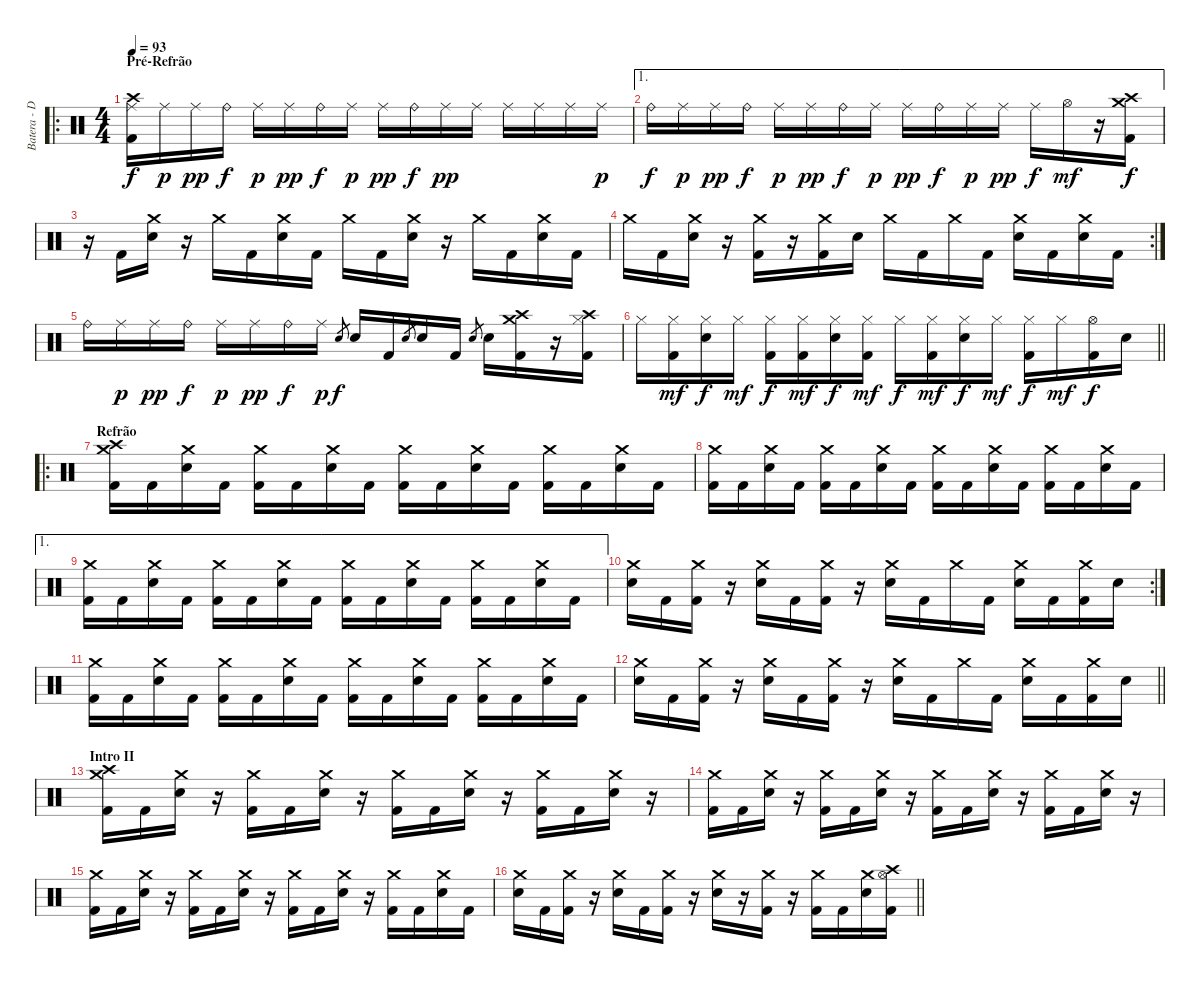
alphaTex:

\track ("Batera - Daniel" "Batera - D") {instrument percussion}
\staff {score}
\articulation defaults
\ro
\ts (4 4)
\section ("" "Pré-Refrão")
\tempo 93
\clef neutral
\ks c
("Crash high (hit)" "Ride (middle)" "Kick (hit) 2").16{dy f} "Ride (middle)".16{dy p} "Ride (middle)".16{dy pp} "Ride (bell)".16{dy f} "Ride (middle)".16{dy p} "Ride (middle)".16{dy pp} "Ride (bell)".16{dy f} "Ride (middle)".16{dy p} "Ride (middle)".16{dy pp} "Ride (bell)".16{dy f} "Ride (middle)".16{dy pp} "Ride (middle)".16 "Ride (middle)".16 "Ride (middle)".16 "Ride (middle)".16 "Ride (middle)".16{dy p} |
\ae 1 "Ride (bell)".16{dy f} "Ride (middle)".16{dy p} "Ride (middle)".16{dy pp} "Ride (bell)".16{dy f} "Ride (middle)".16{dy p} "Ride (middle)".16{dy pp} "Ride (bell)".16{dy f} "Ride (middle)".16{dy p} "Ride (middle)".16{dy pp} "Ride (bell)".16{dy f} "Ride (middle)".16{dy p} "Ride (middle)".16{dy pp} "Ride (middle)".16{dy f} "Hi-Hat (open)".16{dy mf}
r.16 ("Crash high (hit)" "Crash medium (hit)" "Kick (hit) 2").16{dy f} |
r.16 "Kick (hit) 2".16 ("Crash medium (hit)" "Electric Snare (hit)").16 r.16 "Crash medium (hit)".16 "Kick (hit) 2".16 ("Crash medium (hit)" "Electric Snare (hit)").16 "Kick (hit) 2".16 "Crash medium (hit)".16 "Kick (hit) 2".16 ("Crash medium (hit)" "Electric Snare (hit)").16 r.16 "Crash medium (hit)".16 "Kick (hit) 2".16 ("Crash medium (hit)" "Electric Snare (hit)").16 "Kick (hit) 2".16 |
\rc 2 "Crash medium (hit)".16 "Kick (hit) 2".16
("Crash medium (hit)" "Electric Snare (hit)").16 r.16 ("Crash medium (hit)" "Kick (hit) 2").16 r.16 ("Crash medium (hit)" "Kick (hit) 2").16 "Electric Snare (hit)".16 "Crash medium (hit)".16 "Kick (hit) 2".16 "Crash medium (hit)".16 "Kick (hit) 2".16 ("Crash medium (hit)" "Electric Snare (hit)").16 "Kick (hit) 2".16 ("Crash medium (hit)" "Electric Snare (hit)").16 "Kick (hit) 2".16 |
"Ride (bell)".16 "Ride (middle)".16{dy p} "Ride (middle)".16{dy pp} "Ride (bell)".16{dy f} "Ride (middle)".16{dy p} "Ride (middle)".16{dy pp} "Ride (bell)".16{dy f} "Ride (middle)".16{dy p} "Electric Snare (hit)".8{gr dy f} "Electric Snare (hit)".16 "Kick (hit) 2".16 "Electric Snare (hit)".8{gr} "Electric Snare (hit)".16 "Kick (hit) 2".16 "Electric Snare (hit)".8{gr} "Electric Snare (hit)".16 ("Crash high (hit)" "Crash medium (hit)" "Kick (hit) 2").16 r.16 ("Crash high (hit)" "Hi-Hat (closed)" "Kick (hit) 2").16 |
\barLineRight lightlight "Hi-Hat (closed)".16
("Hi-Hat (closed)" "Kick (hit) 2").16{dy mf} ("Hi-Hat (closed)" "Electric Snare (hit)").16{dy f} "Hi-Hat (closed)".16{dy mf} ("Hi-Hat (closed)" "Kick (hit) 2").16{dy f} ("Hi-Hat (closed)" "Kick (hit) 2").16{dy mf} ("Hi-Hat (closed)" "Electric Snare (hit)").16{dy f} ("Hi-Hat (closed)" "Kick (hit) 2").16{dy mf} "Hi-Hat (closed)".16{dy f} ("Hi-Hat (closed)" "Kick (hit) 2").16{dy mf} ("Hi-Hat (closed)" "Electric Snare (hit)").16{dy f} "Hi-Hat (closed)".16{dy mf} ("Hi-Hat (closed)" "Kick (hit) 2").16{dy f} "Hi-Hat (closed)".16{dy mf} ("Hi-Hat (open)" "Kick (hit) 2").16{dy f} "Electric Snare (hit)".16 |
\ro
\section ("" "Refrão")
("Crash high (hit)" "Crash medium (hit)" "Kick (hit) 2").16 "Kick (hit) 2".16 ("Crash medium (hit)" "Electric Snare (hit)").16 "Kick (hit) 2".16 ("Crash medium (hit)" "Kick (hit) 2").16 "Kick (hit) 2".16 ("Crash medium (hit)" "Electric Snare (hit)").16 "Kick (hit) 2".16 ("Crash medium (hit)" "Kick (hit) 2").16 "Kick (hit) 2".16 ("Crash medium (hit)" "Electric Snare (hit)").16 "Kick (hit) 2".16 ("Crash medium (hit)" "Kick (hit) 2").16 "Kick (hit) 2".16 ("Crash medium (hit)" "Electric Snare (hit)").16 "Kick (hit) 2".16 |
("Crash medium (hit)" "Kick (hit) 2").16 "Kick (hit) 2".16 ("Crash medium (hit)" "Electric Snare (hit)").16 "Kick (hit) 2".16 ("Crash medium (hit)" "Kick (hit) 2").16 "Kick (hit) 2".16 ("Crash medium (hit)" "Electric Snare (hit)").16 "Kick (hit) 2".16 ("Crash medium (hit)" "Kick (hit) 2").16 "Kick (hit) 2".16 ("Crash medium (hit)" "Electric Snare (hit)").16 "Kick (hit) 2".16 ("Crash medium (hit)" "Kick (hit) 2").16 "Kick (hit) 2".16 ("Crash medium (hit)" "Electric Snare (hit)").16 "Kick (hit) 2".16 |
\ae 1
("Crash medium (hit)" "Kick (hit) 2").16 "Kick (hit) 2".16 ("Crash medium (hit)" "Electric Snare (hit)").16 "Kick (hit) 2".16 ("Crash medium (hit)" "Kick (hit) 2").16 "Kick (hit) 2".16 ("Crash medium (hit)" "Electric Snare (hit)").16 "Kick (hit) 2".16 ("Crash medium (hit)" "Kick (hit) 2").16 "Kick (hit) 2".16 ("Crash medium (hit)" "Electric Snare (hit)").16 "Kick (hit) 2".16 ("Crash medium (hit)" "Kick (hit) 2").16 "Kick (hit) 2".16 ("Crash medium (hit)" "Electric Snare (hit)").16 "Kick (hit) 2".16 |
\rc 2
("Crash medium (hit)" "Electric Snare (hit)").16 "Kick (hit) 2".16 ("Crash medium (hit)" "Kick (hit) 2").16 r.16 ("Crash medium (hit)" "Electric Snare (hit)").16 "Kick (hit) 2".16 ("Crash medium (hit)" "Kick (hit) 2").16 r.16 ("Crash medium (hit)" "Electric Snare (hit)").16 "Kick (hit) 2".16 "Crash medium (hit)".16 "Kick (hit) 2".16 ("Crash medium (hit)" "Electric Snare (hit)").16 "Kick (hit) 2".16 ("Crash medium (hit)" "Kick (hit) 2").16 "Electric Snare (hit)".16 |
("Crash medium (hit)" "Kick (hit) 2").16 "Kick (hit) 2".16 ("Crash medium (hit)" "Electric Snare (hit)").16 "Kick (hit) 2".16 ("Crash medium (hit)" "Kick (hit) 2").16 "Kick (hit) 2".16 ("Crash medium (hit)" "Electric Snare (hit)").16 "Kick (hit) 2".16 ("Crash medium (hit)" "Kick (hit) 2").16 "Kick (hit) 2".16 ("Crash medium (hit)" "Electric Snare (hit)").16 "Kick (hit) 2".16 ("Crash medium (hit)" "Kick (hit) 2").16 "Kick (hit) 2".16 ("Crash medium (hit)" "Electric Snare (hit)").16 "Kick (hit) 2".16 |
\barLineRight lightlight
("Crash medium (hit)" "Electric Snare (hit)").16 "Kick (hit) 2".16 ("Crash medium (hit)" "Kick (hit) 2").16 r.16 ("Crash medium (hit)" "Electric Snare (hit)").16 "Kick (hit) 2".16 ("Crash medium (hit)" "Kick (hit) 2").16 r.16 ("Crash medium (hit)" "Electric Snare (hit)").16 "Kick (hit) 2".16 "Crash medium (hit)".16 "Kick (hit) 2".16 ("Crash medium (hit)" "Electric Snare (hit)").16 "Kick (hit) 2".16 ("Crash medium (hit)" "Kick (hit) 2").16 "Electric Snare (hit)".16 |
\section ("" "Intro II")
("Crash high (hit)" "Crash medium (hit)" "Kick (hit) 2").16 "Kick (hit) 2".16 ("Crash medium (hit)" "Electric Snare (hit)").16 r.16 ("Crash medium (hit)" "Kick (hit) 2").16 "Kick (hit) 2".16 ("Crash medium (hit)" "Electric Snare (hit)").16 r.16 ("Crash medium (hit)" "Kick (hit) 2").16 "Kick (hit) 2".16 ("Crash medium (hit)" "Electric Snare (hit)").16 r.16 ("Crash medium (hit)" "Kick (hit) 2").16 "Kick (hit) 2".16 ("Crash medium (hit)" "Electric Snare (hit)").16 r.16 |
("Crash medium (hit)" "Kick (hit) 2").16 "Kick (hit) 2".16 ("Crash medium (hit)" "Electric Snare (hit)").16 r.16 ("Crash medium (hit)" "Kick (hit) 2").16 "Kick (hit) 2".16 ("Crash medium (hit)" "Electric Snare (hit)").16 r.16 ("Crash medium (hit)" "Kick (hit) 2").16 "Kick (hit) 2".16 ("Crash medium (hit)" "Electric Snare (hit)").16 r.16 ("Crash medium (hit)" "Kick (hit) 2").16 "Kick (hit) 2".16 ("Crash medium (hit)" "Electric Snare (hit)").16 r.16 |
("Crash medium (hit)" "Kick (hit) 2").16 "Kick (hit) 2".16 ("Crash medium (hit)" "Electric Snare (hit)").16 r.16 ("Crash medium (hit)" "Kick (hit) 2").16 "Kick (hit) 2".16 ("Crash medium (hit)" "Electric Snare (hit)").16 r.16 ("Crash medium (hit)" "Kick (hit) 2").16 "Kick (hit) 2".16 ("Crash medium (hit)" "Electric Snare (hit)").16 r.16 ("Crash medium (hit)" "Kick (hit) 2").16 "Kick (hit) 2".16 ("Crash medium (hit)" "Electric Snare (hit)").16 "Kick (hit) 2".16 |
\barLineRight lightlight
("Crash medium (hit)" "Electric Snare (hit)").16 "Kick (hit) 2".16 ("Crash medium (hit)" "Kick (hit) 2").16 r.16 ("Crash medium (hit)" "Electric Snare (hit)").16 "Kick (hit) 2".16 ("Crash medium (hit)" "Kick (hit) 2").16 r.16 ("Crash medium (hit)" "Electric Snare (hit)").16 r.16 ("Crash medium (hit)" "Kick (hit) 2").16 r.16 ("Crash medium (hit)" "Kick (hit) 2").16 "Kick (hit) 2".16 ("Crash medium (hit)" "Electric Snare (hit)").16 ("Crash high (hit)" "Hi-Hat (open)" "Kick (hit) 2").16
